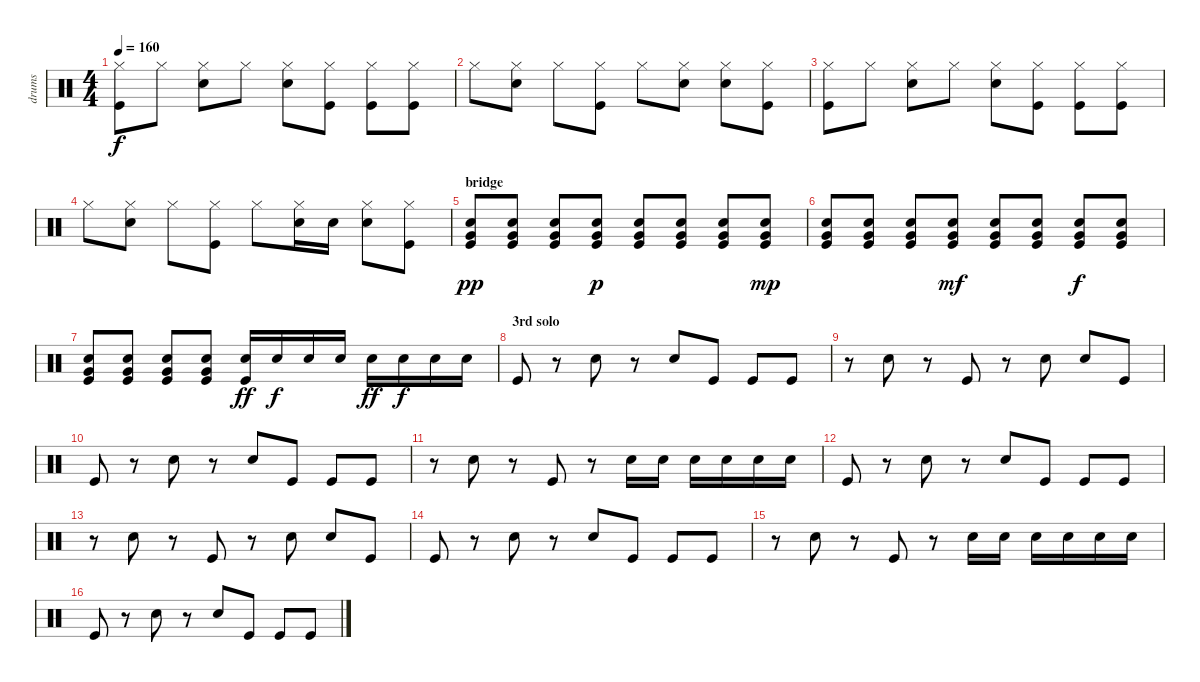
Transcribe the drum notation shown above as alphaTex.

\track ("drums" "drums") {instrument percussion}
\staff {score}
\articulation defaults
\ts (4 4)
\tempo 160
\clef neutral
\ks c
("Hi-Hat (closed)" "Kick (hit)").8{dy f} "Hi-Hat (closed)".8 ("Hi-Hat (closed)" "Electric Snare (hit)").8 "Hi-Hat (closed)".8 ("Hi-Hat (closed)" "Electric Snare (hit)").8 ("Hi-Hat (closed)" "Kick (hit)").8 ("Hi-Hat (closed)" "Kick (hit)").8 ("Hi-Hat (closed)" "Kick (hit)").8 |
"Hi-Hat (closed)".8 ("Hi-Hat (closed)" "Electric Snare (hit)").8 "Hi-Hat (closed)".8 ("Hi-Hat (closed)" "Kick (hit)").8 "Hi-Hat (closed)".8 ("Hi-Hat (closed)" "Electric Snare (hit)").8 ("Hi-Hat (closed)" "Electric Snare (hit)").8 ("Hi-Hat (closed)" "Kick (hit)").8 |
("Hi-Hat (closed)" "Kick (hit)").8 "Hi-Hat (closed)".8 ("Hi-Hat (closed)" "Electric Snare (hit)").8 "Hi-Hat (closed)".8 ("Hi-Hat (closed)" "Electric Snare (hit)").8 ("Hi-Hat (closed)" "Kick (hit)").8 ("Hi-Hat (closed)" "Kick (hit)").8 ("Hi-Hat (closed)" "Kick (hit)").8 |
"Hi-Hat (closed)".8 ("Hi-Hat (closed)" "Electric Snare (hit)").8 "Hi-Hat (closed)".8 ("Hi-Hat (closed)" "Kick (hit)").8 "Hi-Hat (closed)".8 ("Hi-Hat (closed)" "Electric Snare (hit)").16 "Electric Snare (hit)".16 ("Hi-Hat (closed)" "Electric Snare (hit)").8 ("Hi-Hat (closed)" "Kick (hit)").8 |
\section ("" "bridge")
("Very Low Tom (hit)" "Electric Snare (hit)" "Kick (hit)").8{dy pp} ("Very Low Tom (hit)" "Electric Snare (hit)" "Kick (hit)").8 ("Very Low Tom (hit)" "Electric Snare (hit)" "Kick (hit)").8 ("Very Low Tom (hit)" "Electric Snare (hit)" "Kick (hit)").8{dy p} ("Very Low Tom (hit)" "Electric Snare (hit)" "Kick (hit)").8 ("Very Low Tom (hit)" "Electric Snare (hit)" "Kick (hit)").8 ("Very Low Tom (hit)" "Electric Snare (hit)" "Kick (hit)").8 ("Very Low Tom (hit)" "Electric Snare (hit)" "Kick (hit)").8{dy mp} |
("Very Low Tom (hit)" "Electric Snare (hit)" "Kick (hit)").8 ("Very Low Tom (hit)" "Electric Snare (hit)" "Kick (hit)").8 ("Very Low Tom (hit)" "Electric Snare (hit)" "Kick (hit)").8 ("Very Low Tom (hit)" "Electric Snare (hit)" "Kick (hit)").8{dy mf} ("Very Low Tom (hit)" "Electric Snare (hit)" "Kick (hit)").8 ("Very Low Tom (hit)" "Electric Snare (hit)" "Kick (hit)").8 ("Very Low Tom (hit)" "Electric Snare (hit)" "Kick (hit)").8{dy f} ("Very Low Tom (hit)" "Electric Snare (hit)" "Kick (hit)").8 |
("Very Low Tom (hit)" "Electric Snare (hit)" "Kick (hit)").8 ("Very Low Tom (hit)" "Electric Snare (hit)" "Kick (hit)").8 ("Very Low Tom (hit)" "Electric Snare (hit)" "Kick (hit)").8 ("Very Low Tom (hit)" "Electric Snare (hit)" "Kick (hit)").8 ("Electric Snare (hit)" "Kick (hit)").16{dy ff} "Electric Snare (hit)".16{dy f} "Electric Snare (hit)".16 "Electric Snare (hit)".16 "Electric Snare (hit)".16{dy ff} "Electric Snare (hit)".16{dy f} "Electric Snare (hit)".16 "Electric Snare (hit)".16 |
\section ("" "3rd solo")
"Kick (hit)".8 r.8 "Electric Snare (hit)".8 r.8 "Electric Snare (hit)".8 "Kick (hit)".8 "Kick (hit)".8 "Kick (hit)".8 |
r.8 "Electric Snare (hit)".8 r.8 "Kick (hit)".8 r.8 "Electric Snare (hit)".8 "Electric Snare (hit)".8 "Kick (hit)".8 |
"Kick (hit)".8 r.8 "Electric Snare (hit)".8 r.8 "Electric Snare (hit)".8 "Kick (hit)".8 "Kick (hit)".8 "Kick (hit)".8 |
r.8 "Electric Snare (hit)".8 r.8 "Kick (hit)".8 r.8 "Electric Snare (hit)".16 "Electric Snare (hit)".16 "Electric Snare (hit)".16 "Electric Snare (hit)".16 "Electric Snare (hit)".16 "Electric Snare (hit)".16 |
"Kick (hit)".8 r.8 "Electric Snare (hit)".8 r.8 "Electric Snare (hit)".8 "Kick (hit)".8 "Kick (hit)".8 "Kick (hit)".8 |
r.8 "Electric Snare (hit)".8 r.8 "Kick (hit)".8 r.8 "Electric Snare (hit)".8 "Electric Snare (hit)".8 "Kick (hit)".8 |
"Kick (hit)".8 r.8 "Electric Snare (hit)".8 r.8 "Electric Snare (hit)".8 "Kick (hit)".8 "Kick (hit)".8 "Kick (hit)".8 |
r.8 "Electric Snare (hit)".8 r.8 "Kick (hit)".8 r.8 "Electric Snare (hit)".16 "Electric Snare (hit)".16 "Electric Snare (hit)".16 "Electric Snare (hit)".16 "Electric Snare (hit)".16 "Electric Snare (hit)".16 |
"Kick (hit)".8 r.8 "Electric Snare (hit)".8 r.8 "Electric Snare (hit)".8 "Kick (hit)".8 "Kick (hit)".8 "Kick (hit)".8
